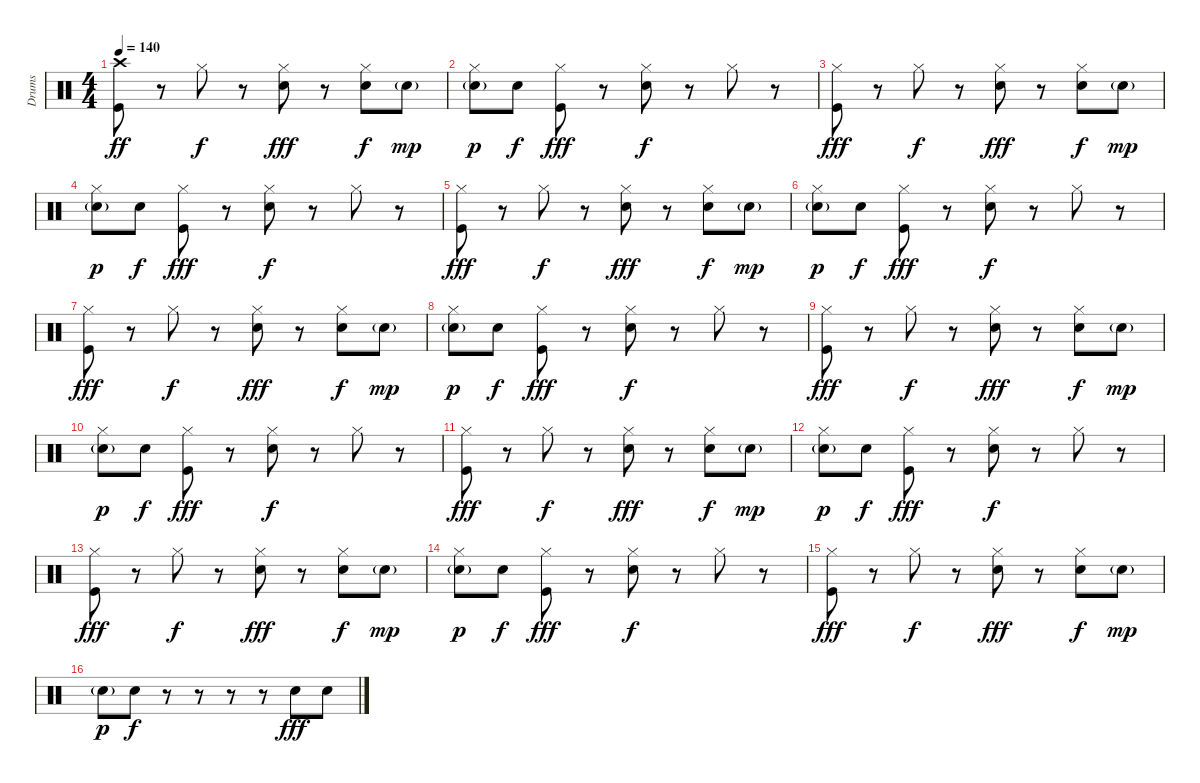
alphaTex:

\track ("Drums" "Drums") {instrument percussion}
\staff {score}
\articulation defaults
\ts (4 4)
\tempo 140
\clef neutral
\ks c
("Crash high (hit)" "Kick (hit)").8{dy ff} r.8 "Hi-Hat (closed)".8{dy f} r.8 ("Hi-Hat (closed)" "Snare (hit) 2").8{dy fff} r.8 ("Hi-Hat (closed)" "Snare (hit) 2").8{dy f} "Snare (hit) 2"{g}.8{dy mp} |
("Hi-Hat (closed)" "Snare (hit) 2"{g}).8{dy p} "Snare (hit) 2".8{dy f} ("Hi-Hat (closed)" "Kick (hit)").8{dy fff} r.8 ("Hi-Hat (closed)" "Snare (hit) 2").8{dy f} r.8 "Hi-Hat (closed)".8 r.8 |
("Hi-Hat (closed)" "Kick (hit)").8{dy fff} r.8 "Hi-Hat (closed)".8{dy f} r.8 ("Hi-Hat (closed)" "Snare (hit) 2").8{dy fff} r.8 ("Hi-Hat (closed)" "Snare (hit) 2").8{dy f} "Snare (hit) 2"{g}.8{dy mp} |
("Hi-Hat (closed)" "Snare (hit) 2"{g}).8{dy p} "Snare (hit) 2".8{dy f} ("Hi-Hat (closed)" "Kick (hit)").8{dy fff} r.8 ("Hi-Hat (closed)" "Snare (hit) 2").8{dy f} r.8 "Hi-Hat (closed)".8 r.8 |
("Hi-Hat (closed)" "Kick (hit)").8{dy fff} r.8 "Hi-Hat (closed)".8{dy f} r.8 ("Hi-Hat (closed)" "Snare (hit) 2").8{dy fff} r.8 ("Hi-Hat (closed)" "Snare (hit) 2").8{dy f} "Snare (hit) 2"{g}.8{dy mp} |
("Hi-Hat (closed)" "Snare (hit) 2"{g}).8{dy p} "Snare (hit) 2".8{dy f} ("Hi-Hat (closed)" "Kick (hit)").8{dy fff} r.8 ("Hi-Hat (closed)" "Snare (hit) 2").8{dy f} r.8 "Hi-Hat (closed)".8 r.8 |
("Hi-Hat (closed)" "Kick (hit)").8{dy fff} r.8 "Hi-Hat (closed)".8{dy f} r.8 ("Hi-Hat (closed)" "Snare (hit) 2").8{dy fff} r.8 ("Hi-Hat (closed)" "Snare (hit) 2").8{dy f} "Snare (hit) 2"{g}.8{dy mp} |
("Hi-Hat (closed)" "Snare (hit) 2"{g}).8{dy p} "Snare (hit) 2".8{dy f} ("Hi-Hat (closed)" "Kick (hit)").8{dy fff} r.8 ("Hi-Hat (closed)" "Snare (hit) 2").8{dy f} r.8 "Hi-Hat (closed)".8 r.8 |
("Hi-Hat (closed)" "Kick (hit)").8{dy fff} r.8 "Hi-Hat (closed)".8{dy f} r.8 ("Hi-Hat (closed)" "Snare (hit) 2").8{dy fff} r.8 ("Hi-Hat (closed)" "Snare (hit) 2").8{dy f} "Snare (hit) 2"{g}.8{dy mp} |
("Hi-Hat (closed)" "Snare (hit) 2"{g}).8{dy p} "Snare (hit) 2".8{dy f} ("Hi-Hat (closed)" "Kick (hit)").8{dy fff} r.8 ("Hi-Hat (closed)" "Snare (hit) 2").8{dy f} r.8 "Hi-Hat (closed)".8 r.8 |
("Hi-Hat (closed)" "Kick (hit)").8{dy fff} r.8 "Hi-Hat (closed)".8{dy f} r.8 ("Hi-Hat (closed)" "Snare (hit) 2").8{dy fff} r.8 ("Hi-Hat (closed)" "Snare (hit) 2").8{dy f} "Snare (hit) 2"{g}.8{dy mp} |
("Hi-Hat (closed)" "Snare (hit) 2"{g}).8{dy p} "Snare (hit) 2".8{dy f} ("Hi-Hat (closed)" "Kick (hit)").8{dy fff} r.8 ("Hi-Hat (closed)" "Snare (hit) 2").8{dy f} r.8 "Hi-Hat (closed)".8 r.8 |
("Hi-Hat (closed)" "Kick (hit)").8{dy fff} r.8 "Hi-Hat (closed)".8{dy f} r.8 ("Hi-Hat (closed)" "Snare (hit) 2").8{dy fff} r.8 ("Hi-Hat (closed)" "Snare (hit) 2").8{dy f} "Snare (hit) 2"{g}.8{dy mp} |
("Hi-Hat (closed)" "Snare (hit) 2"{g}).8{dy p} "Snare (hit) 2".8{dy f} ("Hi-Hat (closed)" "Kick (hit)").8{dy fff} r.8 ("Hi-Hat (closed)" "Snare (hit) 2").8{dy f} r.8 "Hi-Hat (closed)".8 r.8 |
("Hi-Hat (closed)" "Kick (hit)").8{dy fff} r.8 "Hi-Hat (closed)".8{dy f} r.8 ("Hi-Hat (closed)" "Snare (hit) 2").8{dy fff} r.8 ("Hi-Hat (closed)" "Snare (hit) 2").8{dy f} "Snare (hit) 2"{g}.8{dy mp} |
"Snare (hit) 2"{g}.8{dy p} "Snare (hit) 2".8{dy f} r.8 r.8 r.8 r.8 "Snare (hit) 2".8{dy fff} "Snare (hit) 2".8
